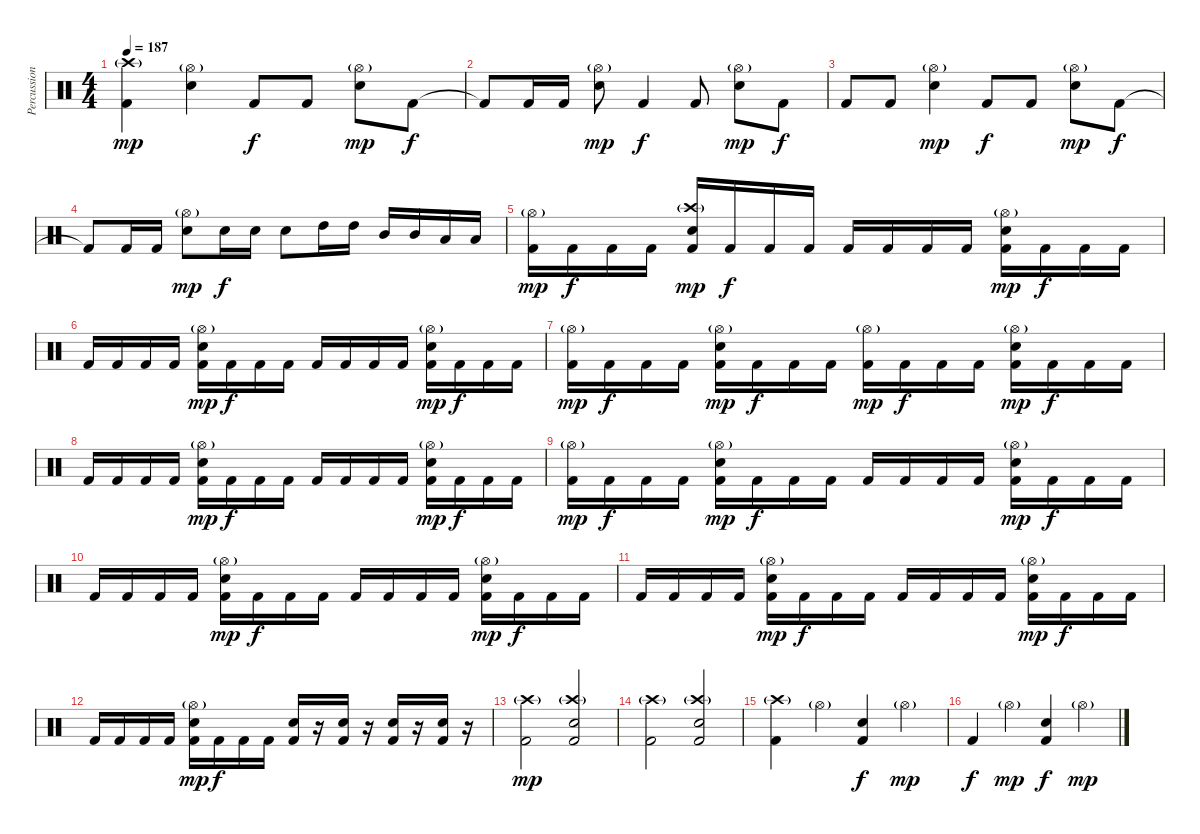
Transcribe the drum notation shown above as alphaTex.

\track ("Percussion" "Percussion") {instrument percussion}
\staff {score}
\articulation defaults
\ts (4 4)
\tempo 187
\clef neutral
\ks c
("Kick (hit) 2" "Crash high (hit)"{g}).4{dy mp} ("Snare (hit) 2" "Hi-Hat (open)"{g}).4 "Kick (hit) 2".8{dy f} "Kick (hit) 2".8 ("Snare (hit) 2" "Hi-Hat (open)"{g}).8{dy mp} "Kick (hit) 2".8{dy f} |
"Kick (hit) 2"{t}.8 "Kick (hit) 2".16 "Kick (hit) 2".16 ("Snare (hit) 2" "Hi-Hat (open)"{g}).8{dy mp} "Kick (hit) 2".4{dy f} "Kick (hit) 2".8 ("Snare (hit) 2" "Hi-Hat (open)"{g}).8{dy mp} "Kick (hit) 2".8{dy f} |
"Kick (hit) 2".8 "Kick (hit) 2".8 ("Snare (hit) 2" "Hi-Hat (open)"{g}).4{dy mp} "Kick (hit) 2".8{dy f} "Kick (hit) 2".8 ("Snare (hit) 2" "Hi-Hat (open)"{g}).8{dy mp} "Kick (hit) 2".8{dy f} |
"Kick (hit) 2"{t}.8 "Kick (hit) 2".16 "Kick (hit) 2".16 ("Snare (hit) 2" "Hi-Hat (open)"{g}).8{dy mp} "Snare (hit) 2".16{dy f} "Snare (hit) 2".16 "Snare (hit) 2".8 "High Tom (hit)".16 "High Tom (hit)".16 "Mid Tom (hit)".16 "Mid Tom (hit)".16 "Low Tom (hit)".16 "Low Tom (hit)".16 |
("Kick (hit) 2" "Hi-Hat (open)"{g}).16{dy mp} "Kick (hit) 2".16{dy f} "Kick (hit) 2".16 "Kick (hit) 2".16 ("Kick (hit) 2" "Snare (hit) 2" "Crash high (hit)"{g}).16{dy mp} "Kick (hit) 2".16{dy f} "Kick (hit) 2".16 "Kick (hit) 2".16 "Kick (hit) 2".16 "Kick (hit) 2".16 "Kick (hit) 2".16 "Kick (hit) 2".16 ("Kick (hit) 2" "Snare (hit) 2" "Hi-Hat (open)"{g}).16{dy mp} "Kick (hit) 2".16{dy f} "Kick (hit) 2".16 "Kick (hit) 2".16 |
"Kick (hit) 2".16 "Kick (hit) 2".16 "Kick (hit) 2".16 "Kick (hit) 2".16 ("Kick (hit) 2" "Snare (hit) 2" "Hi-Hat (open)"{g}).16{dy mp} "Kick (hit) 2".16{dy f} "Kick (hit) 2".16 "Kick (hit) 2".16 "Kick (hit) 2".16 "Kick (hit) 2".16 "Kick (hit) 2".16 "Kick (hit) 2".16 ("Kick (hit) 2" "Snare (hit) 2" "Hi-Hat (open)"{g}).16{dy mp} "Kick (hit) 2".16{dy f} "Kick (hit) 2".16 "Kick (hit) 2".16 |
("Kick (hit) 2" "Hi-Hat (open)"{g}).16{dy mp} "Kick (hit) 2".16{dy f} "Kick (hit) 2".16 "Kick (hit) 2".16 ("Kick (hit) 2" "Snare (hit) 2" "Hi-Hat (open)"{g}).16{dy mp} "Kick (hit) 2".16{dy f} "Kick (hit) 2".16 "Kick (hit) 2".16 ("Kick (hit) 2" "Hi-Hat (open)"{g}).16{dy mp} "Kick (hit) 2".16{dy f} "Kick (hit) 2".16 "Kick (hit) 2".16 ("Kick (hit) 2" "Snare (hit) 2" "Hi-Hat (open)"{g}).16{dy mp} "Kick (hit) 2".16{dy f} "Kick (hit) 2".16 "Kick (hit) 2".16 |
"Kick (hit) 2".16 "Kick (hit) 2".16 "Kick (hit) 2".16 "Kick (hit) 2".16 ("Kick (hit) 2" "Snare (hit) 2" "Hi-Hat (open)"{g}).16{dy mp} "Kick (hit) 2".16{dy f} "Kick (hit) 2".16 "Kick (hit) 2".16 "Kick (hit) 2".16 "Kick (hit) 2".16 "Kick (hit) 2".16 "Kick (hit) 2".16 ("Kick (hit) 2" "Snare (hit) 2" "Hi-Hat (open)"{g}).16{dy mp} "Kick (hit) 2".16{dy f} "Kick (hit) 2".16 "Kick (hit) 2".16 |
("Kick (hit) 2" "Hi-Hat (open)"{g}).16{dy mp} "Kick (hit) 2".16{dy f} "Kick (hit) 2".16 "Kick (hit) 2".16 ("Kick (hit) 2" "Snare (hit) 2" "Hi-Hat (open)"{g}).16{dy mp} "Kick (hit) 2".16{dy f} "Kick (hit) 2".16 "Kick (hit) 2".16 "Kick (hit) 2".16 "Kick (hit) 2".16 "Kick (hit) 2".16 "Kick (hit) 2".16 ("Kick (hit) 2" "Snare (hit) 2" "Hi-Hat (open)"{g}).16{dy mp} "Kick (hit) 2".16{dy f} "Kick (hit) 2".16 "Kick (hit) 2".16 |
"Kick (hit) 2".16 "Kick (hit) 2".16 "Kick (hit) 2".16 "Kick (hit) 2".16 ("Kick (hit) 2" "Snare (hit) 2" "Hi-Hat (open)"{g}).16{dy mp} "Kick (hit) 2".16{dy f} "Kick (hit) 2".16 "Kick (hit) 2".16 "Kick (hit) 2".16 "Kick (hit) 2".16 "Kick (hit) 2".16 "Kick (hit) 2".16 ("Kick (hit) 2" "Snare (hit) 2" "Hi-Hat (open)"{g}).16{dy mp} "Kick (hit) 2".16{dy f} "Kick (hit) 2".16 "Kick (hit) 2".16 |
"Kick (hit) 2".16 "Kick (hit) 2".16 "Kick (hit) 2".16 "Kick (hit) 2".16 ("Kick (hit) 2" "Snare (hit) 2" "Hi-Hat (open)"{g}).16{dy mp} "Kick (hit) 2".16{dy f} "Kick (hit) 2".16 "Kick (hit) 2".16 "Kick (hit) 2".16 "Kick (hit) 2".16 "Kick (hit) 2".16 "Kick (hit) 2".16 ("Kick (hit) 2" "Snare (hit) 2" "Hi-Hat (open)"{g}).16{dy mp} "Kick (hit) 2".16{dy f} "Kick (hit) 2".16 "Kick (hit) 2".16 |
"Kick (hit) 2".16 "Kick (hit) 2".16 "Kick (hit) 2".16 "Kick (hit) 2".16 ("Kick (hit) 2" "Snare (hit) 2" "Hi-Hat (open)"{g}).16{dy mp} "Kick (hit) 2".16{dy f} "Kick (hit) 2".16 "Kick (hit) 2".16 ("Kick (hit) 2" "Snare (hit) 2").16 r.16 ("Kick (hit) 2" "Snare (hit) 2").16 r.16 ("Kick (hit) 2" "Snare (hit) 2").16 r.16 ("Kick (hit) 2" "Snare (hit) 2").16 r.16 |
("Kick (hit) 2" "Crash high (hit)"{g}).2{dy mp} ("Kick (hit) 2" "Crash high (hit)"{g} "Snare (hit) 2").2 |
("Kick (hit) 2" "Crash high (hit)"{g}).2 ("Kick (hit) 2" "Crash high (hit)"{g} "Snare (hit) 2").2 |
("Kick (hit) 2" "Crash high (hit)"{g}).4 "Hi-Hat (open)"{g}.4 ("Kick (hit) 2" "Snare (hit) 2").4{dy f} "Hi-Hat (open)"{g}.4{dy mp} |
"Kick (hit) 2".4{dy f} "Hi-Hat (open)"{g}.4{dy mp} ("Kick (hit) 2" "Snare (hit) 2").4{dy f} "Hi-Hat (open)"{g}.4{dy mp}
